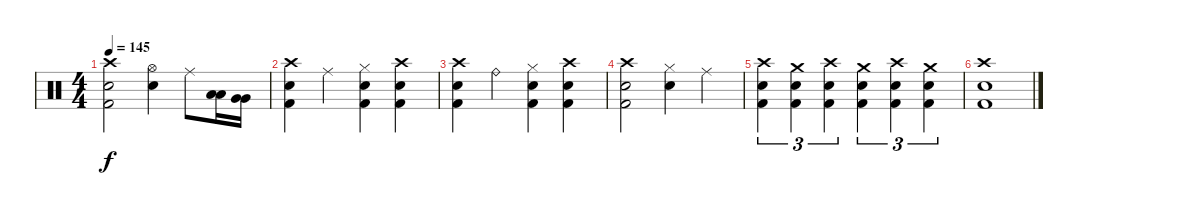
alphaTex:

\track "" {instrument percussion}
\staff {score}
\articulation defaults
\ts (4 4)
\tempo 145
\clef neutral
\ks c
("Crash high (hit)" "Snare (hit) 2" "Kick (hit) 2").2{dy f} ("Hi-Hat (open)" "Snare (hit) 2").4 "Ride (middle)".8 ("Low Tom (hit)" "Low Tom (hit)").16 ("Very Low Tom (hit)" "Very Low Tom (hit)").16 |
("Crash high (hit)" "Snare (hit) 2" "Kick (hit) 2").4 "Ride (middle)".4 ("Hi-Hat (closed)" "Snare (hit) 2" "Kick (hit) 2").4 ("Crash high (hit)" "Snare (hit) 2" "Kick (hit) 2").4 |
("Crash high (hit)" "Snare (hit) 2" "Kick (hit) 2").4 "Ride (bell)".4 ("Hi-Hat (closed)" "Snare (hit) 2" "Kick (hit) 2").4 ("Crash high (hit)" "Snare (hit) 2" "Kick (hit) 2").4 |
("Crash high (hit)" "Snare (hit) 2" "Kick (hit) 2").2 ("Hi-Hat (closed)" "Snare (hit) 2").4 "Ride (middle)".4 |
("Crash high (hit)" "Snare (hit) 2" "Kick (hit) 2").4{tu (3 2)} ("Crash medium (hit)" "Snare (hit) 2" "Kick (hit) 2").4{tu (3 2)} ("Crash high (hit)" "Snare (hit) 2" "Kick (hit) 2").4{tu (3 2)} ("Crash medium (hit)" "Snare (hit) 2" "Kick (hit) 2").4{tu (3 2)} ("Crash high (hit)" "Snare (hit) 2" "Kick (hit) 2").4{tu (3 2)} ("Crash medium (hit)" "Snare (hit) 2" "Kick (hit) 2").4{tu (3 2)} |
("Crash high (hit)" "Snare (hit) 2" "Kick (hit) 2").1
